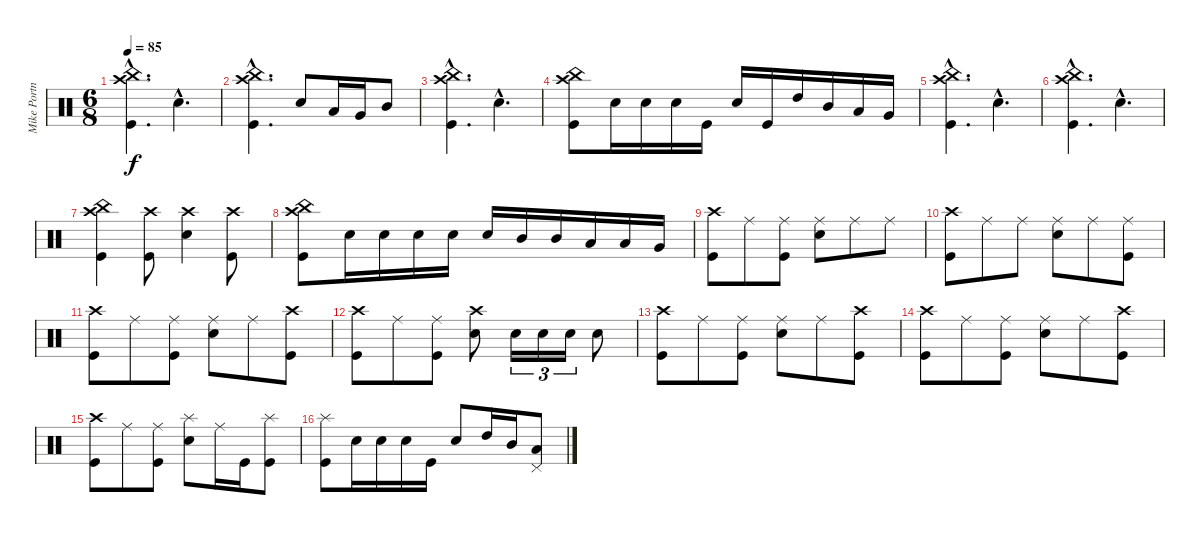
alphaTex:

\track ("Mike Portnoy" "Mike Portn") {instrument percussion}
\staff {score}
\articulation defaults
\ts (6 8)
\tempo 85
\clef neutral
\ks c
("China (hit)"{hac} "Crash high (hit)"{hac} "Kick (hit)"{hac}).4{d dy f} "Electric Snare (hit)"{hac}.4{d} |
("China (hit)"{hac} "Crash high (hit)"{hac} "Kick (hit)"{hac}).4{d} "Electric Snare (hit)".8 "Low Tom (hit)".16 "Very Low Tom (hit)".16 "Mid Tom (hit)".8 |
("China (hit)"{hac} "Crash high (hit)"{hac} "Kick (hit)"{hac}).4{d} "Electric Snare (hit)"{hac}.4{d} |
("China (hit)" "Crash high (hit)" "Kick (hit)").8 "Electric Snare (hit)".16 "Electric Snare (hit)".16 "Electric Snare (hit)".16 "Kick (hit)".16 "Electric Snare (hit)".16 "Kick (hit)".16 "High Tom (hit)".16 "Mid Tom (hit)".16 "Low Tom (hit)".16 "Very Low Tom (hit)".16 |
("China (hit)"{hac} "Crash high (hit)"{hac} "Kick (hit)"{hac}).4{d} "Electric Snare (hit)"{hac}.4{d} |
("China (hit)"{hac} "Crash high (hit)"{hac} "Kick (hit)"{hac}).4{d} "Electric Snare (hit)"{hac}.4{d} |
("China (hit)" "Crash high (hit)" "Kick (hit)").4 ("Crash high (hit)" "Kick (hit)").8 ("Crash high (hit)" "Electric Snare (hit)").4 ("Crash high (hit)" "Kick (hit)").8 |
("China (hit)" "Crash high (hit)" "Kick (hit)").8 "Electric Snare (hit)".16 "Electric Snare (hit)".16 "Electric Snare (hit)".16 "Electric Snare (hit)".16 "Electric Snare (hit)".16 "Mid Tom (hit)".16 "Mid Tom (hit)".16 "Low Tom (hit)".16 "Low Tom (hit)".16 "Very Low Tom (hit)".16 |
("Crash high (hit)" "Kick (hit)").8 "Ride (middle)".8 ("Ride (middle)" "Kick (hit)").8 ("Ride (middle)" "Electric Snare (hit)").8 "Ride (middle)".8 "Ride (middle)".8 |
("Crash high (hit)" "Kick (hit)").8 "Ride (middle)".8 "Ride (middle)".8 ("Ride (middle)" "Electric Snare (hit)").8 "Ride (middle)".8 ("Ride (middle)" "Kick (hit)").8 |
("Crash high (hit)" "Kick (hit)").8 "Ride (middle)".8 ("Ride (middle)" "Kick (hit)").8 ("Ride (middle)" "Electric Snare (hit)").8 "Ride (middle)".8 ("Crash high (hit)" "Kick (hit)").8 |
("Crash high (hit)" "Kick (hit)").8 "Ride (middle)".8 ("Ride (middle)" "Kick (hit)").8 ("Crash high (hit)" "Electric Snare (hit)").8 "Electric Snare (hit)".16{tu (3 2)} "Electric Snare (hit)".16{tu (3 2)} "Electric Snare (hit)".16{tu (3 2)} "Electric Snare (hit)".8 |
("Crash high (hit)" "Kick (hit)").8 "Ride (middle)".8 ("Ride (middle)" "Kick (hit)").8 ("Ride (middle)" "Electric Snare (hit)").8 "Ride (middle)".8 ("Crash high (hit)" "Kick (hit)").8 |
("Crash high (hit)" "Kick (hit)").8 "Ride (middle)".8 ("Ride (middle)" "Kick (hit)").8 ("Ride (middle)" "Electric Snare (hit)").8 "Ride (middle)".8 ("Crash high (hit)" "Kick (hit)").8 |
("Crash high (hit)" "Kick (hit)").8 "Ride (middle)".8 ("Ride (middle)" "Kick (hit)").8 ("Splash (hit)" "Electric Snare (hit)").8 "Ride (middle)".16 "Kick (hit)".16 ("Splash (hit)" "Kick (hit)").8 |
("Splash (hit)" "Kick (hit)").8 "Electric Snare (hit)".16 "Electric Snare (hit)".16 "Electric Snare (hit)".16 "Kick (hit)".16 "Electric Snare (hit)".8 "High Tom (hit)".16 "Mid Tom (hit)".16 ("Pedal Hi-Hat (hit)" "Low Tom (hit)").8
